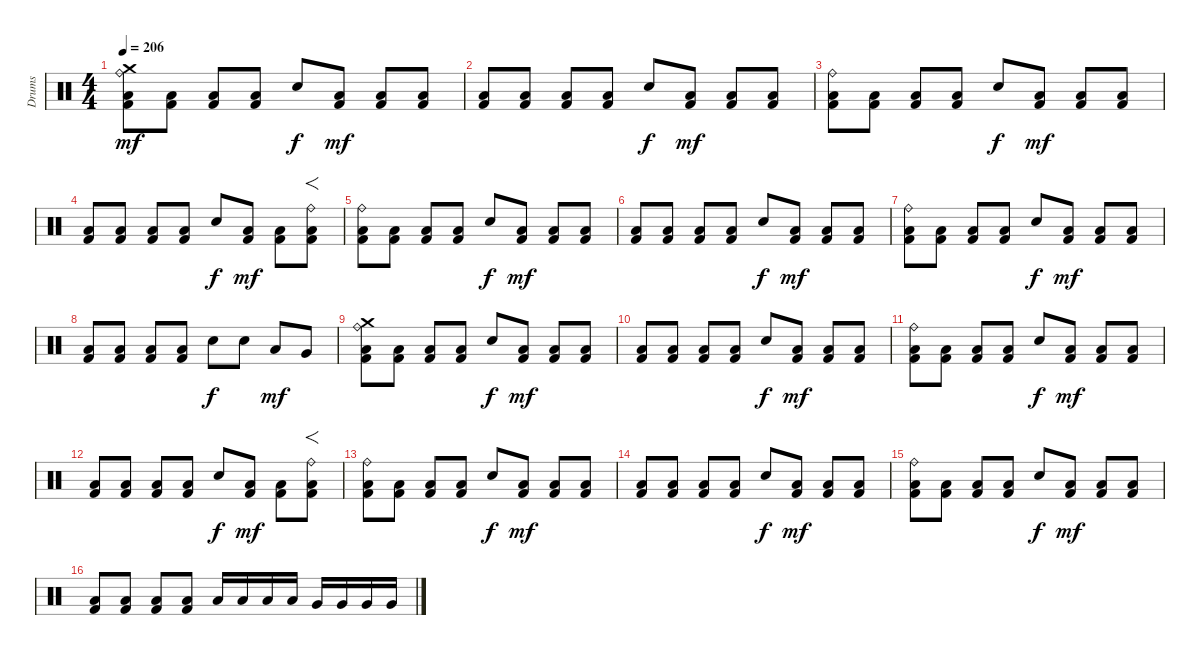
\track ("Drums" "Drums") {instrument percussion}
\staff {score}
\articulation defaults
\ts (4 4)
\tempo 206
\clef neutral
\ks c
("Crash medium (hit)" "Ride (bell)" "Low Floor Tom (hit)" "Kick (hit) 2").8{dy mf} ("Low Floor Tom (hit)" "Kick (hit) 2").8 ("Low Floor Tom (hit)" "Kick (hit) 2").8 ("Low Floor Tom (hit)" "Kick (hit) 2").8 "Snare (hit) 2".8{dy f} ("Low Floor Tom (hit)" "Kick (hit) 2").8{dy mf} ("Low Floor Tom (hit)" "Kick (hit) 2").8 ("Low Floor Tom (hit)" "Kick (hit) 2").8 |
("Low Floor Tom (hit)" "Kick (hit) 2").8 ("Low Floor Tom (hit)" "Kick (hit) 2").8 ("Low Floor Tom (hit)" "Kick (hit) 2").8 ("Low Floor Tom (hit)" "Kick (hit) 2").8 "Snare (hit) 2".8{dy f} ("Low Floor Tom (hit)" "Kick (hit) 2").8{dy mf} ("Low Floor Tom (hit)" "Kick (hit) 2").8 ("Low Floor Tom (hit)" "Kick (hit) 2").8 |
("Ride (bell)" "Low Floor Tom (hit)" "Kick (hit) 2").8 ("Low Floor Tom (hit)" "Kick (hit) 2").8 ("Low Floor Tom (hit)" "Kick (hit) 2").8 ("Low Floor Tom (hit)" "Kick (hit) 2").8 "Snare (hit) 2".8{dy f} ("Low Floor Tom (hit)" "Kick (hit) 2").8{dy mf} ("Low Floor Tom (hit)" "Kick (hit) 2").8 ("Low Floor Tom (hit)" "Kick (hit) 2").8 |
("Low Floor Tom (hit)" "Kick (hit) 2").8 ("Low Floor Tom (hit)" "Kick (hit) 2").8 ("Low Floor Tom (hit)" "Kick (hit) 2").8 ("Low Floor Tom (hit)" "Kick (hit) 2").8 "Snare (hit) 2".8{dy f} ("Low Floor Tom (hit)" "Kick (hit) 2").8{dy mf} ("Low Floor Tom (hit)" "Kick (hit) 2").8 ("Ride (bell)" "Low Floor Tom (hit)" "Kick (hit) 2").8{f} |
("Ride (bell)" "Low Floor Tom (hit)" "Kick (hit) 2").8 ("Low Floor Tom (hit)" "Kick (hit) 2").8 ("Low Floor Tom (hit)" "Kick (hit) 2").8 ("Low Floor Tom (hit)" "Kick (hit) 2").8 "Snare (hit) 2".8{dy f} ("Low Floor Tom (hit)" "Kick (hit) 2").8{dy mf} ("Low Floor Tom (hit)" "Kick (hit) 2").8 ("Low Floor Tom (hit)" "Kick (hit) 2").8 |
("Low Floor Tom (hit)" "Kick (hit) 2").8 ("Low Floor Tom (hit)" "Kick (hit) 2").8 ("Low Floor Tom (hit)" "Kick (hit) 2").8 ("Low Floor Tom (hit)" "Kick (hit) 2").8 "Snare (hit) 2".8{dy f} ("Low Floor Tom (hit)" "Kick (hit) 2").8{dy mf} ("Low Floor Tom (hit)" "Kick (hit) 2").8 ("Low Floor Tom (hit)" "Kick (hit) 2").8 |
("Ride (bell)" "Low Floor Tom (hit)" "Kick (hit) 2").8 ("Low Floor Tom (hit)" "Kick (hit) 2").8 ("Low Floor Tom (hit)" "Kick (hit) 2").8 ("Low Floor Tom (hit)" "Kick (hit) 2").8 "Snare (hit) 2".8{dy f} ("Low Floor Tom (hit)" "Kick (hit) 2").8{dy mf} ("Low Floor Tom (hit)" "Kick (hit) 2").8 ("Low Floor Tom (hit)" "Kick (hit) 2").8 |
("Low Floor Tom (hit)" "Kick (hit) 2").8 ("Low Floor Tom (hit)" "Kick (hit) 2").8 ("Low Floor Tom (hit)" "Kick (hit) 2").8 ("Low Floor Tom (hit)" "Kick (hit) 2").8 "Snare (hit) 2".8{dy f} "Snare (hit) 2".8 "Low Tom (hit)".8{dy mf} "Very Low Tom (hit)".8 |
("Crash medium (hit)" "Ride (bell)" "Low Floor Tom (hit)" "Kick (hit) 2").8 ("Low Floor Tom (hit)" "Kick (hit) 2").8 ("Low Floor Tom (hit)" "Kick (hit) 2").8 ("Low Floor Tom (hit)" "Kick (hit) 2").8 "Snare (hit) 2".8{dy f} ("Low Floor Tom (hit)" "Kick (hit) 2").8{dy mf} ("Low Floor Tom (hit)" "Kick (hit) 2").8 ("Low Floor Tom (hit)" "Kick (hit) 2").8 |
("Low Floor Tom (hit)" "Kick (hit) 2").8 ("Low Floor Tom (hit)" "Kick (hit) 2").8 ("Low Floor Tom (hit)" "Kick (hit) 2").8 ("Low Floor Tom (hit)" "Kick (hit) 2").8 "Snare (hit) 2".8{dy f} ("Low Floor Tom (hit)" "Kick (hit) 2").8{dy mf} ("Low Floor Tom (hit)" "Kick (hit) 2").8 ("Low Floor Tom (hit)" "Kick (hit) 2").8 |
("Ride (bell)" "Low Floor Tom (hit)" "Kick (hit) 2").8 ("Low Floor Tom (hit)" "Kick (hit) 2").8 ("Low Floor Tom (hit)" "Kick (hit) 2").8 ("Low Floor Tom (hit)" "Kick (hit) 2").8 "Snare (hit) 2".8{dy f} ("Low Floor Tom (hit)" "Kick (hit) 2").8{dy mf} ("Low Floor Tom (hit)" "Kick (hit) 2").8 ("Low Floor Tom (hit)" "Kick (hit) 2").8 |
("Low Floor Tom (hit)" "Kick (hit) 2").8 ("Low Floor Tom (hit)" "Kick (hit) 2").8 ("Low Floor Tom (hit)" "Kick (hit) 2").8 ("Low Floor Tom (hit)" "Kick (hit) 2").8 "Snare (hit) 2".8{dy f} ("Low Floor Tom (hit)" "Kick (hit) 2").8{dy mf} ("Low Floor Tom (hit)" "Kick (hit) 2").8 ("Ride (bell)" "Low Floor Tom (hit)" "Kick (hit) 2").8{f} |
("Ride (bell)" "Low Floor Tom (hit)" "Kick (hit) 2").8 ("Low Floor Tom (hit)" "Kick (hit) 2").8 ("Low Floor Tom (hit)" "Kick (hit) 2").8 ("Low Floor Tom (hit)" "Kick (hit) 2").8 "Snare (hit) 2".8{dy f} ("Low Floor Tom (hit)" "Kick (hit) 2").8{dy mf} ("Low Floor Tom (hit)" "Kick (hit) 2").8 ("Low Floor Tom (hit)" "Kick (hit) 2").8 |
("Low Floor Tom (hit)" "Kick (hit) 2").8 ("Low Floor Tom (hit)" "Kick (hit) 2").8 ("Low Floor Tom (hit)" "Kick (hit) 2").8 ("Low Floor Tom (hit)" "Kick (hit) 2").8 "Snare (hit) 2".8{dy f} ("Low Floor Tom (hit)" "Kick (hit) 2").8{dy mf} ("Low Floor Tom (hit)" "Kick (hit) 2").8 ("Low Floor Tom (hit)" "Kick (hit) 2").8 |
("Ride (bell)" "Low Floor Tom (hit)" "Kick (hit) 2").8 ("Low Floor Tom (hit)" "Kick (hit) 2").8 ("Low Floor Tom (hit)" "Kick (hit) 2").8 ("Low Floor Tom (hit)" "Kick (hit) 2").8 "Snare (hit) 2".8{dy f} ("Low Floor Tom (hit)" "Kick (hit) 2").8{dy mf} ("Low Floor Tom (hit)" "Kick (hit) 2").8 ("Low Floor Tom (hit)" "Kick (hit) 2").8 |
("Low Floor Tom (hit)" "Kick (hit) 2").8 ("Low Floor Tom (hit)" "Kick (hit) 2").8 ("Low Floor Tom (hit)" "Kick (hit) 2").8 ("Low Floor Tom (hit)" "Kick (hit) 2").8 "Low Tom (hit)".16 "Low Tom (hit)".16 "Low Tom (hit)".16 "Low Tom (hit)".16 "Very Low Tom (hit)".16 "Very Low Tom (hit)".16 "Very Low Tom (hit)".16 "Very Low Tom (hit)".16
